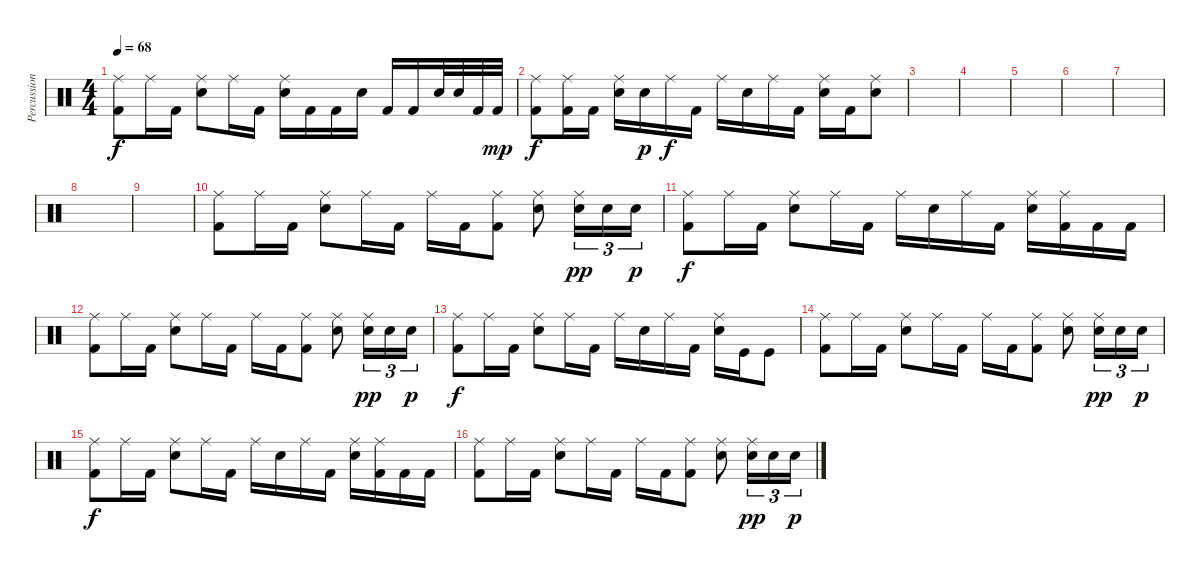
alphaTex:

\track ("Percussion" "Percussion") {instrument percussion}
\staff {score}
\articulation defaults
\ts (4 4)
\tempo 68
\clef neutral
\ks c
("Ride (middle)" "Kick (hit) 2").8{dy f} "Ride (middle)".16 "Kick (hit) 2".16 ("Ride (middle)" "Snare (hit) 2").8 "Ride (middle)".16 "Kick (hit) 2".16 ("Ride (middle)" "Snare (hit) 2").16 "Kick (hit) 2".16 "Kick (hit) 2".16 "Snare (hit) 2".16 "Kick (hit) 2".16 "Kick (hit) 2".16 "Snare (hit) 2".32 "Snare (hit) 2".32 "Kick (hit) 2".32 "Kick (hit) 2".32{dy mp} |
("Ride (middle)" "Kick (hit) 2").8{dy f} ("Ride (middle)" "Kick (hit) 2").16 "Kick (hit) 2".16 ("Ride (middle)" "Snare (hit) 2").16 "Snare (hit) 2".16{dy p} "Ride (middle)".16{dy f} "Kick (hit) 2".16 "Ride (middle)".16 "Snare (hit) 2".16 "Ride (middle)".16 "Kick (hit) 2".16 ("Ride (middle)" "Snare (hit) 2").16 "Kick (hit) 2".16 ("Ride (middle)" "Snare (hit) 2").8 |
|
|
|
|
|
|
|
("Ride (middle)" "Kick (hit) 2").8 "Ride (middle)".16 "Kick (hit) 2".16 ("Ride (middle)" "Snare (hit) 2").8 "Ride (middle)".16 "Kick (hit) 2".16 "Ride (middle)".16 "Kick (hit) 2".16 ("Ride (middle)" "Kick (hit) 2").8 ("Ride (middle)" "Snare (hit) 2").8 ("Ride (middle)" "Snare (hit) 2").16{tu (3 2) dy pp} "Snare (hit) 2".16{tu (3 2)} "Snare (hit) 2".16{tu (3 2) dy p} |
("Ride (middle)" "Kick (hit) 2").8{dy f} "Ride (middle)".16 "Kick (hit) 2".16 ("Ride (middle)" "Snare (hit) 2").8 "Ride (middle)".16 "Kick (hit) 2".16 "Ride (middle)".16 "Snare (hit) 2".16 "Ride (middle)".16 "Kick (hit) 2".16 ("Ride (middle)" "Snare (hit) 2").16 ("Ride (middle)" "Kick (hit) 2").16 "Kick (hit) 2".16 "Kick (hit) 2".16 |
("Ride (middle)" "Kick (hit) 2").8 "Ride (middle)".16 "Kick (hit) 2".16 ("Ride (middle)" "Snare (hit) 2").8 "Ride (middle)".16 "Kick (hit) 2".16 "Ride (middle)".16 "Kick (hit) 2".16 ("Ride (middle)" "Kick (hit) 2").8 ("Ride (middle)" "Snare (hit) 2").8 ("Ride (middle)" "Snare (hit) 2").16{tu (3 2) dy pp} "Snare (hit) 2".16{tu (3 2)} "Snare (hit) 2".16{tu (3 2) dy p} |
("Ride (middle)" "Kick (hit) 2").8{dy f} "Ride (middle)".16 "Kick (hit) 2".16 ("Ride (middle)" "Snare (hit) 2").8 "Ride (middle)".16 "Kick (hit) 2".16 "Ride (middle)".16 "Snare (hit) 2".16 "Ride (middle)".16 "Kick (hit) 2".16 ("Ride (middle)" "Snare (hit) 2").16 "Kick (hit)".16 "Kick (hit)".8 |
("Ride (middle)" "Kick (hit) 2").8 "Ride (middle)".16 "Kick (hit) 2".16 ("Ride (middle)" "Snare (hit) 2").8 "Ride (middle)".16 "Kick (hit) 2".16 "Ride (middle)".16 "Kick (hit) 2".16 ("Ride (middle)" "Kick (hit) 2").8 ("Ride (middle)" "Snare (hit) 2").8 ("Ride (middle)" "Snare (hit) 2").16{tu (3 2) dy pp} "Snare (hit) 2".16{tu (3 2)} "Snare (hit) 2".16{tu (3 2) dy p} |
("Ride (middle)" "Kick (hit) 2").8{dy f} "Ride (middle)".16 "Kick (hit) 2".16 ("Ride (middle)" "Snare (hit) 2").8 "Ride (middle)".16 "Kick (hit) 2".16 "Ride (middle)".16 "Snare (hit) 2".16 "Ride (middle)".16 "Kick (hit) 2".16 ("Ride (middle)" "Snare (hit) 2").16 ("Ride (middle)" "Kick (hit) 2").16 "Kick (hit) 2".16 "Kick (hit) 2".16 |
("Ride (middle)" "Kick (hit) 2").8 "Ride (middle)".16 "Kick (hit) 2".16 ("Ride (middle)" "Snare (hit) 2").8 "Ride (middle)".16 "Kick (hit) 2".16 "Ride (middle)".16 "Kick (hit) 2".16 ("Ride (middle)" "Kick (hit) 2").8 ("Ride (middle)" "Snare (hit) 2").8 ("Ride (middle)" "Snare (hit) 2").16{tu (3 2) dy pp} "Snare (hit) 2".16{tu (3 2)} "Snare (hit) 2".16{tu (3 2) dy p}
